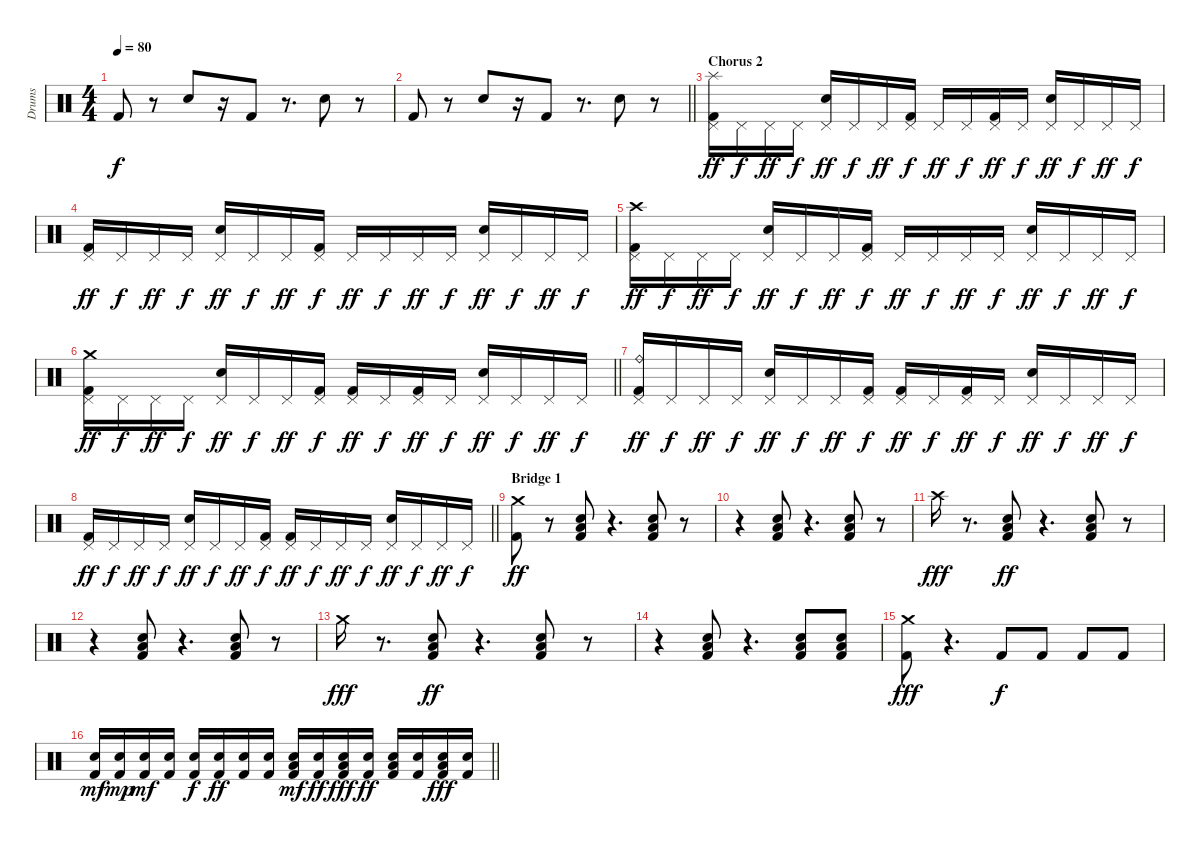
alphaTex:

\track ("Drums" "Drums") {instrument percussion}
\staff {score}
\articulation defaults
\ts (4 4)
\tempo 80
\clef neutral
\ks c "Kick (hit) 2".8{dy f}
r.8 "Snare (hit) 2".8 r.16 "Kick (hit) 2".8 r.8{d} "Snare (hit) 2".8 r.8 |
\barLineRight lightlight "Kick (hit) 2".8
r.8 "Snare (hit) 2".8 r.16 "Kick (hit) 2".8 r.8{d} "Snare (hit) 2".8 r.8 |
\section ("" "Chorus 2")
("Pedal Hi-Hat (hit)" "Splash (hit)" "Kick (hit) 2").16{dy ff} "Pedal Hi-Hat (hit)".16{dy f} "Pedal Hi-Hat (hit)".16{dy ff} "Pedal Hi-Hat (hit)".16{dy f} ("Pedal Hi-Hat (hit)" "Snare (hit) 2").16{dy ff} "Pedal Hi-Hat (hit)".16{dy f} "Pedal Hi-Hat (hit)".16{dy ff} ("Kick (hit) 2" "Pedal Hi-Hat (hit)").16{dy f} "Pedal Hi-Hat (hit)".16{dy ff} "Pedal Hi-Hat (hit)".16{dy f} ("Pedal Hi-Hat (hit)" "Kick (hit) 2").16{dy ff} "Pedal Hi-Hat (hit)".16{dy f} ("Pedal Hi-Hat (hit)" "Snare (hit) 2").16{dy ff} "Pedal Hi-Hat (hit)".16{dy f} "Pedal Hi-Hat (hit)".16{dy ff} "Pedal Hi-Hat (hit)".16{dy f} |
("Kick (hit) 2" "Pedal Hi-Hat (hit)").16{dy ff} "Pedal Hi-Hat (hit)".16{dy f} "Pedal Hi-Hat (hit)".16{dy ff} "Pedal Hi-Hat (hit)".16{dy f} ("Snare (hit) 2" "Pedal Hi-Hat (hit)").16{dy ff} "Pedal Hi-Hat (hit)".16{dy f} "Pedal Hi-Hat (hit)".16{dy ff} ("Kick (hit) 2" "Pedal Hi-Hat (hit)").16{dy f} "Pedal Hi-Hat (hit)".16{dy ff} "Pedal Hi-Hat (hit)".16{dy f} "Pedal Hi-Hat (hit)".16{dy ff} "Pedal Hi-Hat (hit)".16{dy f} ("Pedal Hi-Hat (hit)" "Snare (hit) 2").16{dy ff} "Pedal Hi-Hat (hit)".16{dy f} "Pedal Hi-Hat (hit)".16{dy ff} "Pedal Hi-Hat (hit)".16{dy f} |
("Kick (hit) 2" "Crash high (hit)" "Pedal Hi-Hat (hit)").16{dy ff} "Pedal Hi-Hat (hit)".16{dy f} "Pedal Hi-Hat (hit)".16{dy ff} "Pedal Hi-Hat (hit)".16{dy f} ("Snare (hit) 2" "Pedal Hi-Hat (hit)").16{dy ff} "Pedal Hi-Hat (hit)".16{dy f} "Pedal Hi-Hat (hit)".16{dy ff} ("Kick (hit) 2" "Pedal Hi-Hat (hit)").16{dy f} "Pedal Hi-Hat (hit)".16{dy ff} "Pedal Hi-Hat (hit)".16{dy f} "Pedal Hi-Hat (hit)".16{dy ff} "Pedal Hi-Hat (hit)".16{dy f} ("Snare (hit) 2" "Pedal Hi-Hat (hit)").16{dy ff} "Pedal Hi-Hat (hit)".16{dy f} "Pedal Hi-Hat (hit)".16{dy ff} "Pedal Hi-Hat (hit)".16{dy f} |
\barLineRight lightlight
("Crash medium (hit)" "Kick (hit) 2" "Pedal Hi-Hat (hit)").16{dy ff} "Pedal Hi-Hat (hit)".16{dy f} "Pedal Hi-Hat (hit)".16{dy ff} "Pedal Hi-Hat (hit)".16{dy f} ("Snare (hit) 2" "Pedal Hi-Hat (hit)").16{dy ff} "Pedal Hi-Hat (hit)".16{dy f} "Pedal Hi-Hat (hit)".16{dy ff} ("Pedal Hi-Hat (hit)" "Kick (hit) 2").16{dy f} ("Pedal Hi-Hat (hit)" "Kick (hit) 2").16{dy ff} "Pedal Hi-Hat (hit)".16{dy f} ("Pedal Hi-Hat (hit)" "Kick (hit) 2").16{dy ff} "Pedal Hi-Hat (hit)".16{dy f} ("Pedal Hi-Hat (hit)" "Snare (hit) 2").16{dy ff} "Pedal Hi-Hat (hit)".16{dy f} "Pedal Hi-Hat (hit)".16{dy ff} "Pedal Hi-Hat (hit)".16{dy f} |
("Kick (hit) 2" "Pedal Hi-Hat (hit)" "Ride (bell)").16{dy ff} "Pedal Hi-Hat (hit)".16{dy f} "Pedal Hi-Hat (hit)".16{dy ff} "Pedal Hi-Hat (hit)".16{dy f} ("Snare (hit) 2" "Pedal Hi-Hat (hit)").16{dy ff} "Pedal Hi-Hat (hit)".16{dy f} "Pedal Hi-Hat (hit)".16{dy ff} ("Kick (hit) 2" "Pedal Hi-Hat (hit)").16{dy f} ("Kick (hit) 2" "Pedal Hi-Hat (hit)").16{dy ff} "Pedal Hi-Hat (hit)".16{dy f} ("Pedal Hi-Hat (hit)" "Kick (hit) 2").16{dy ff} "Pedal Hi-Hat (hit)".16{dy f} ("Pedal Hi-Hat (hit)" "Snare (hit) 2").16{dy ff} "Pedal Hi-Hat (hit)".16{dy f} "Pedal Hi-Hat (hit)".16{dy ff} "Pedal Hi-Hat (hit)".16{dy f} |
\barLineRight lightlight
("Kick (hit) 2" "Pedal Hi-Hat (hit)").16{dy ff} "Pedal Hi-Hat (hit)".16{dy f} "Pedal Hi-Hat (hit)".16{dy ff} "Pedal Hi-Hat (hit)".16{dy f} ("Snare (hit) 2" "Pedal Hi-Hat (hit)").16{dy ff} "Pedal Hi-Hat (hit)".16{dy f} "Pedal Hi-Hat (hit)".16{dy ff} ("Pedal Hi-Hat (hit)" "Kick (hit) 2").16{dy f} ("Pedal Hi-Hat (hit)" "Kick (hit) 2").16{dy ff} "Pedal Hi-Hat (hit)".16{dy f} "Pedal Hi-Hat (hit)".16{dy ff} "Pedal Hi-Hat (hit)".16{dy f} ("Snare (hit) 2" "Pedal Hi-Hat (hit)").16{dy ff} "Pedal Hi-Hat (hit)".16{dy f} "Pedal Hi-Hat (hit)".16{dy ff} "Pedal Hi-Hat (hit)".16{dy f} |
\section ("" "Bridge 1")
("Kick (hit) 2" "Crash medium (hit)").8{dy ff} r.8 ("Low Floor Tom (hit)" "Snare (hit) 2" "Kick (hit) 2").8 r.4{d} ("Kick (hit) 2" "Low Floor Tom (hit)" "Snare (hit) 2").8 r.8 |
r.4 ("Kick (hit) 2" "Snare (hit) 2" "Low Floor Tom (hit)").8 r.4{d} ("Snare (hit) 2" "Low Floor Tom (hit)" "Kick (hit) 2").8 r.8 |
"Crash high (hit)".16{dy fff} r.8{d} ("Low Floor Tom (hit)" "Snare (hit) 2" "Kick (hit) 2").8{dy ff} r.4{d} ("Kick (hit) 2" "Low Floor Tom (hit)" "Snare (hit) 2").8 r.8 |
r.4 ("Kick (hit) 2" "Snare (hit) 2" "Low Floor Tom (hit)").8 r.4{d} ("Kick (hit) 2" "Low Floor Tom (hit)" "Snare (hit) 2").8 r.8 |
"Crash medium (hit)".16{dy fff} r.8{d} ("Low Floor Tom (hit)" "Snare (hit) 2" "Kick (hit) 2").8{dy ff} r.4{d} ("Snare (hit) 2" "Low Floor Tom (hit)" "Kick (hit) 2").8 r.8 |
r.4 ("Kick (hit) 2" "Snare (hit) 2" "Low Floor Tom (hit)").8 r.4{d} ("Snare (hit) 2" "Low Floor Tom (hit)" "Kick (hit) 2").8 ("Snare (hit) 2" "Low Floor Tom (hit)" "Kick (hit) 2").8 |
("Kick (hit) 2" "Crash medium (hit)").8{dy fff} r.4{d} "Kick (hit) 2".8{dy f} "Kick (hit) 2".8 "Kick (hit) 2".8 "Kick (hit) 2".8 |
\barLineRight lightlight
("Kick (hit) 2" "Snare (hit) 2").16{dy mf} ("Kick (hit) 2" "Snare (hit) 2").16{dy mp} ("Snare (hit) 2" "Kick (hit) 2").16{dy mf} ("Snare (hit) 2" "Kick (hit) 2").16 ("Snare (hit) 2" "Kick (hit) 2").16{dy f} ("Snare (hit) 2" "Kick (hit) 2").16{dy ff} ("Snare (hit) 2" "Kick (hit) 2").16 ("Snare (hit) 2" "Kick (hit) 2").16 ("Snare (hit) 2" "Kick (hit) 2" "Low Floor Tom (hit)").16{dy mf} ("Snare (hit) 2" "Kick (hit) 2").16{dy ff} ("Low Floor Tom (hit)" "Kick (hit) 2" "Snare (hit) 2").16{dy fff} ("Kick (hit) 2" "Snare (hit) 2").16{dy ff} ("Low Floor Tom (hit)" "Kick (hit) 2" "Snare (hit) 2").16 ("Kick (hit) 2" "Snare (hit) 2").16 ("Kick (hit) 2" "Low Floor Tom (hit)" "Snare (hit) 2").16{dy fff} ("Kick (hit) 2" "Snare (hit) 2").16
